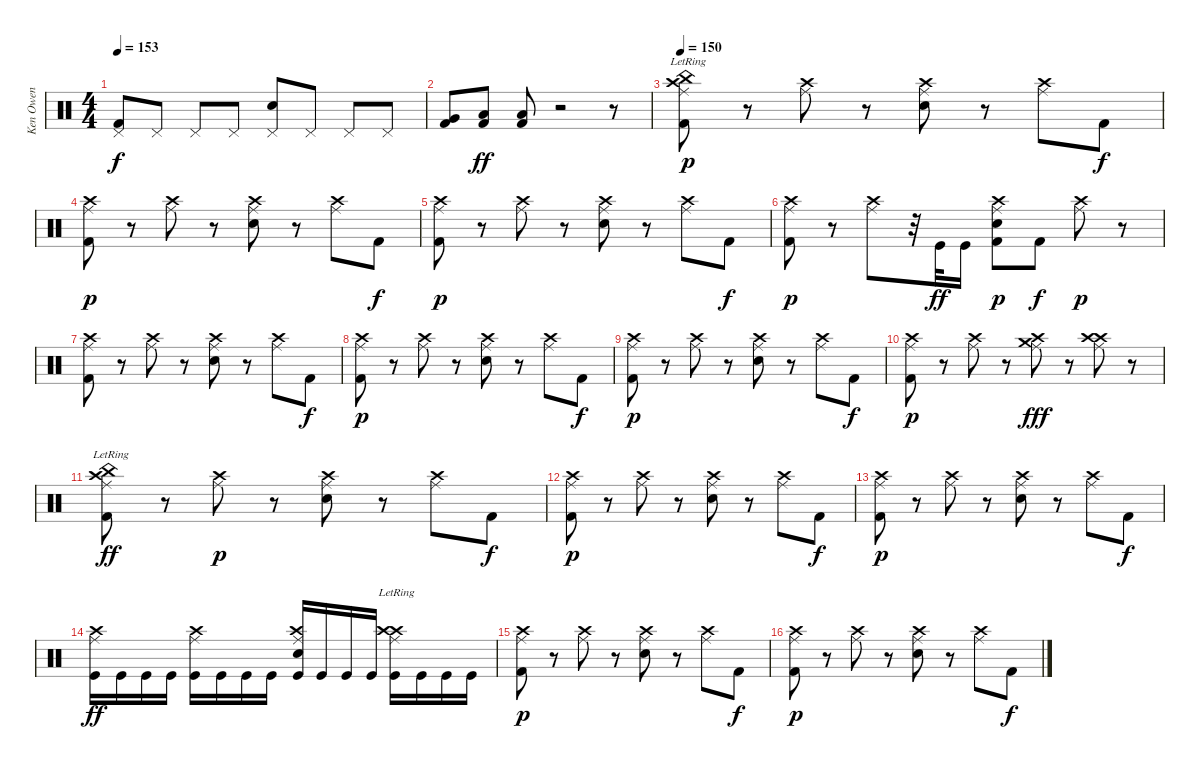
\track ("Ken Owen" "Ken Owen") {instrument percussion}
\staff {score}
\articulation defaults
\ts (4 4)
\tempo 153
\clef neutral
\ks c
("Pedal Hi-Hat (hit)" "Kick (hit) 2").8{dy f} "Pedal Hi-Hat (hit)".8 "Pedal Hi-Hat (hit)".8 "Pedal Hi-Hat (hit)".8 ("Pedal Hi-Hat (hit)" "Electric Snare (hit)").8 "Pedal Hi-Hat (hit)".8 "Pedal Hi-Hat (hit)".8 "Pedal Hi-Hat (hit)".8 |
("Kick (hit) 2" "Very Low Tom (hit)").8 ("Kick (hit) 2" "Low Floor Tom (hit)").8{dy ff} ("Kick (hit) 2" "Low Floor Tom (hit)").8 r.2 r.8 |
\tempo 150
("Crash high (hit)" "Ride (middle)" "Kick (hit) 2" "China (hit)"{lr}).8{dy p} r.8 ("Crash high (hit)" "Ride (middle)").8 r.8 ("Crash high (hit)" "Ride (middle)" "Electric Snare (hit)").8 r.8 ("Crash high (hit)" "Ride (middle)").8 "Kick (hit) 2".8{dy f} |
("Crash high (hit)" "Ride (middle)" "Kick (hit) 2").8{dy p} r.8 ("Crash high (hit)" "Ride (middle)").8 r.8 ("Crash high (hit)" "Ride (middle)" "Electric Snare (hit)").8 r.8 ("Crash high (hit)" "Ride (middle)").8 "Kick (hit) 2".8{dy f} |
("Crash high (hit)" "Ride (middle)" "Kick (hit) 2").8{dy p} r.8 ("Crash high (hit)" "Ride (middle)").8 r.8 ("Crash high (hit)" "Ride (middle)" "Electric Snare (hit)").8 r.8 ("Crash high (hit)" "Ride (middle)").8 "Kick (hit) 2".8{dy f} |
("Crash high (hit)" "Ride (middle)" "Kick (hit) 2").8{dy p} r.8 ("Crash high (hit)" "Ride (middle)").8 r.32 "Kick (hit)".32{dy ff} "Kick (hit)".16 ("Crash high (hit)" "Ride (middle)" "Kick (hit) 2" "Electric Snare (hit)").8{dy p} "Kick (hit) 2".8{dy f} ("Crash high (hit)" "Ride (middle)").8{dy p} r.8 |
("Crash high (hit)" "Ride (middle)" "Kick (hit) 2").8 r.8 ("Crash high (hit)" "Ride (middle)").8 r.8 ("Crash high (hit)" "Ride (middle)" "Electric Snare (hit)").8 r.8 ("Crash high (hit)" "Ride (middle)").8 "Kick (hit) 2".8{dy f} |
("Crash high (hit)" "Ride (middle)" "Kick (hit) 2").8{dy p} r.8 ("Crash high (hit)" "Ride (middle)").8 r.8 ("Crash high (hit)" "Ride (middle)" "Electric Snare (hit)").8 r.8 ("Crash high (hit)" "Ride (middle)").8 "Kick (hit) 2".8{dy f} |
("Crash high (hit)" "Ride (middle)" "Kick (hit) 2").8{dy p} r.8 ("Crash high (hit)" "Ride (middle)").8 r.8 ("Crash high (hit)" "Ride (middle)" "Electric Snare (hit)").8 r.8 ("Crash high (hit)" "Ride (middle)").8 "Kick (hit) 2".8{dy f} |
("Crash high (hit)" "Ride (middle)" "Kick (hit) 2").8{dy p} r.8 ("Crash high (hit)" "Ride (middle)").8 r.8 ("Crash high (hit)" "Ride (middle)" "Crash medium (hit)").8{dy fff} r.8 ("Crash high (hit)" "Ride (middle)" "Crash high (hit)").8 r.8 |
("Crash high (hit)" "Ride (middle)" "Kick (hit) 2" "China (hit)"{lr}).8{dy ff} r.8 ("Crash high (hit)" "Ride (middle)").8{dy p} r.8 ("Crash high (hit)" "Ride (middle)" "Electric Snare (hit)").8 r.8 ("Crash high (hit)" "Ride (middle)").8 "Kick (hit) 2".8{dy f} |
("Crash high (hit)" "Ride (middle)" "Kick (hit) 2").8{dy p} r.8 ("Crash high (hit)" "Ride (middle)").8 r.8 ("Crash high (hit)" "Ride (middle)" "Electric Snare (hit)").8 r.8 ("Crash high (hit)" "Ride (middle)").8 "Kick (hit) 2".8{dy f} |
("Crash high (hit)" "Ride (middle)" "Kick (hit) 2").8{dy p} r.8 ("Crash high (hit)" "Ride (middle)").8 r.8 ("Crash high (hit)" "Ride (middle)" "Electric Snare (hit)").8 r.8 ("Crash high (hit)" "Ride (middle)").8 "Kick (hit) 2".8{dy f} |
("Crash high (hit)" "Ride (middle)" "Kick (hit)").16{dy ff} "Kick (hit)".16 "Kick (hit)".16 "Kick (hit)".16 ("Crash high (hit)" "Ride (middle)" "Kick (hit)").16 "Kick (hit)".16 "Kick (hit)".16 "Kick (hit)".16 ("Crash high (hit)" "Ride (middle)" "Kick (hit)" "Electric Snare (hit)").16 "Kick (hit)".16 "Kick (hit)".16 "Kick (hit)".16 ("Crash high (hit)" "Ride (middle)" "Kick (hit)" "Crash high (hit)"{lr}).16 "Kick (hit)".16 "Kick (hit)".16 "Kick (hit)".16 |
("Crash high (hit)" "Ride (middle)" "Kick (hit) 2").8{dy p} r.8 ("Crash high (hit)" "Ride (middle)").8 r.8 ("Crash high (hit)" "Ride (middle)" "Electric Snare (hit)").8 r.8 ("Crash high (hit)" "Ride (middle)").8 "Kick (hit) 2".8{dy f} |
("Crash high (hit)" "Ride (middle)" "Kick (hit) 2").8{dy p} r.8 ("Crash high (hit)" "Ride (middle)").8 r.8 ("Crash high (hit)" "Ride (middle)" "Electric Snare (hit)").8 r.8 ("Crash high (hit)" "Ride (middle)").8 "Kick (hit) 2".8{dy f}
